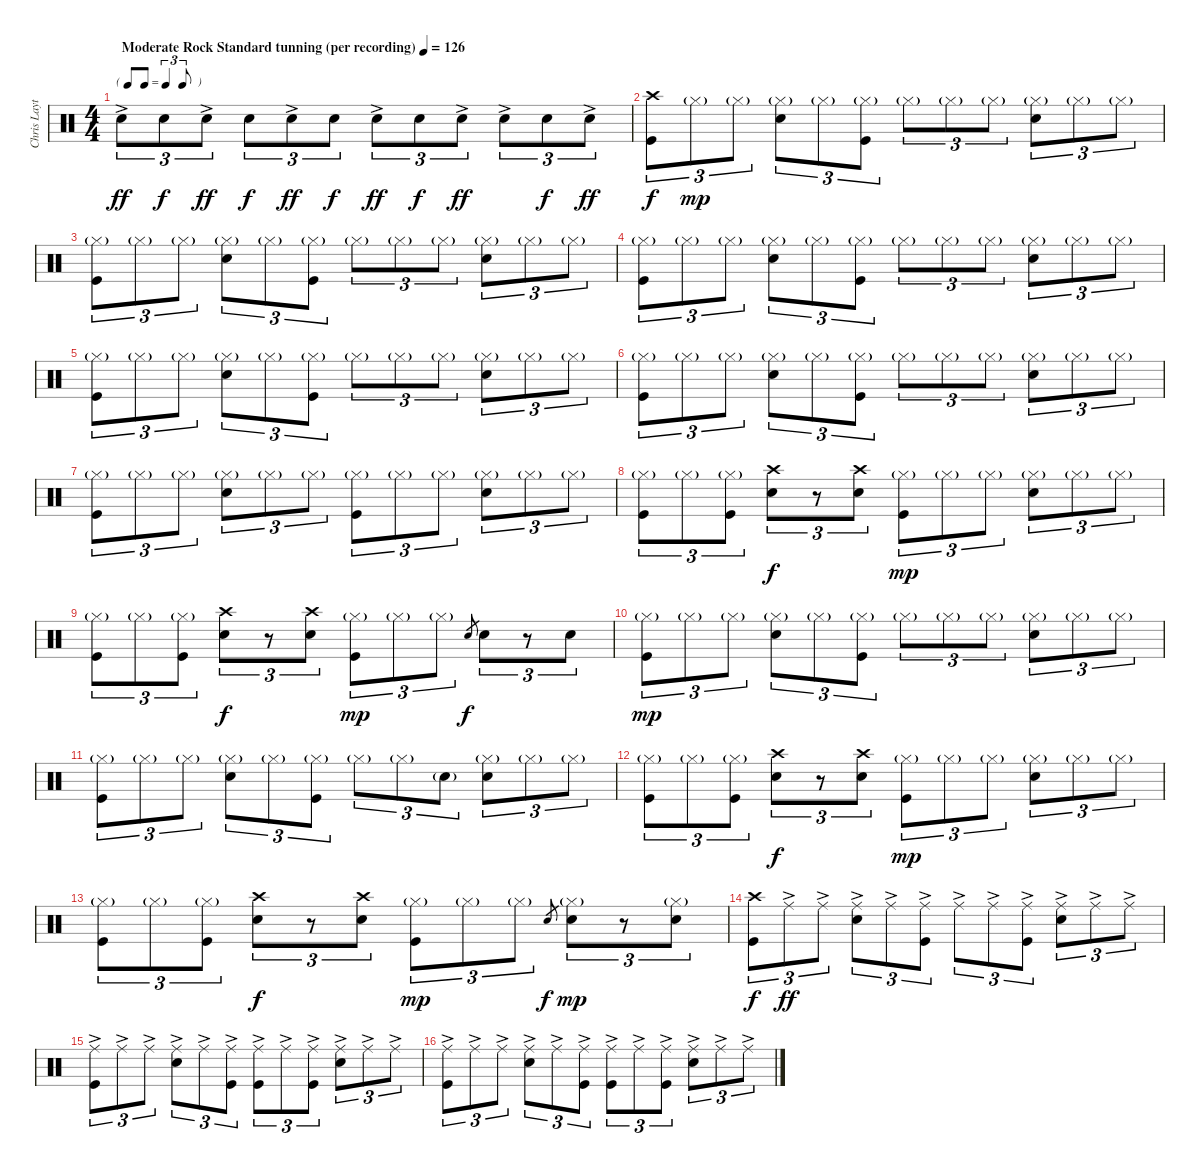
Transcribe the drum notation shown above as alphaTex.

\track ("Chris Layton" "Chris Layt") {instrument percussion}
\staff {score}
\articulation defaults
\ts (4 4)
\tf triplet8th
\tempo (126 "Moderate Rock Standard tunning (per recording)")
\clef neutral
\ks c "Electric Snare (hit)"{ac}.8{tu (3 2) dy ff} "Electric Snare (hit)".8{tu (3 2) dy f} "Electric Snare (hit)"{ac}.8{tu (3 2) dy ff} "Electric Snare (hit)".8{tu (3 2) dy f} "Electric Snare (hit)"{ac}.8{tu (3 2) dy ff} "Electric Snare (hit)".8{tu (3 2) dy f} "Electric Snare (hit)"{ac}.8{tu (3 2) dy ff} "Electric Snare (hit)".8{tu (3 2) dy f} "Electric Snare (hit)"{ac}.8{tu (3 2) dy ff} "Electric Snare (hit)"{ac}.8{tu (3 2)} "Electric Snare (hit)".8{tu (3 2) dy f} "Electric Snare (hit)"{ac}.8{tu (3 2) dy ff}
|
("Crash high (hit)" "Kick (hit)").8{tu (3 2) dy f} "Hi-Hat (closed)"{g}.8{tu (3 2) dy mp} "Hi-Hat (closed)"{g}.8{tu (3 2)} ("Hi-Hat (closed)"{g} "Electric Snare (hit)").8{tu (3 2)} "Hi-Hat (closed)"{g}.8{tu (3 2)} ("Hi-Hat (closed)"{g} "Kick (hit)").8{tu (3 2)} "Hi-Hat (closed)"{g}.8{tu (3 2)} "Hi-Hat (closed)"{g}.8{tu (3 2)} "Hi-Hat (closed)"{g}.8{tu (3 2)} ("Hi-Hat (closed)"{g} "Electric Snare (hit)").8{tu (3 2)} "Hi-Hat (closed)"{g}.8{tu (3 2)} "Hi-Hat (closed)"{g}.8{tu (3 2)} |
("Hi-Hat (closed)"{g} "Kick (hit)").8{tu (3 2)} "Hi-Hat (closed)"{g}.8{tu (3 2)} "Hi-Hat (closed)"{g}.8{tu (3 2)} ("Hi-Hat (closed)"{g} "Electric Snare (hit)").8{tu (3 2)} "Hi-Hat (closed)"{g}.8{tu (3 2)} ("Hi-Hat (closed)"{g} "Kick (hit)").8{tu (3 2)} "Hi-Hat (closed)"{g}.8{tu (3 2)} "Hi-Hat (closed)"{g}.8{tu (3 2)} "Hi-Hat (closed)"{g}.8{tu (3 2)} ("Hi-Hat (closed)"{g} "Electric Snare (hit)").8{tu (3 2)} "Hi-Hat (closed)"{g}.8{tu (3 2)} "Hi-Hat (closed)"{g}.8{tu (3 2)} |
("Hi-Hat (closed)"{g} "Kick (hit)").8{tu (3 2)} "Hi-Hat (closed)"{g}.8{tu (3 2)} "Hi-Hat (closed)"{g}.8{tu (3 2)} ("Hi-Hat (closed)"{g} "Electric Snare (hit)").8{tu (3 2)} "Hi-Hat (closed)"{g}.8{tu (3 2)} ("Hi-Hat (closed)"{g} "Kick (hit)").8{tu (3 2)} "Hi-Hat (closed)"{g}.8{tu (3 2)} "Hi-Hat (closed)"{g}.8{tu (3 2)} "Hi-Hat (closed)"{g}.8{tu (3 2)} ("Hi-Hat (closed)"{g} "Electric Snare (hit)").8{tu (3 2)} "Hi-Hat (closed)"{g}.8{tu (3 2)} "Hi-Hat (closed)"{g}.8{tu (3 2)} |
("Hi-Hat (closed)"{g} "Kick (hit)").8{tu (3 2)} "Hi-Hat (closed)"{g}.8{tu (3 2)} "Hi-Hat (closed)"{g}.8{tu (3 2)} ("Hi-Hat (closed)"{g} "Electric Snare (hit)").8{tu (3 2)} "Hi-Hat (closed)"{g}.8{tu (3 2)} ("Hi-Hat (closed)"{g} "Kick (hit)").8{tu (3 2)} "Hi-Hat (closed)"{g}.8{tu (3 2)} "Hi-Hat (closed)"{g}.8{tu (3 2)} "Hi-Hat (closed)"{g}.8{tu (3 2)} ("Hi-Hat (closed)"{g} "Electric Snare (hit)").8{tu (3 2)} "Hi-Hat (closed)"{g}.8{tu (3 2)} "Hi-Hat (closed)"{g}.8{tu (3 2)} |
("Hi-Hat (closed)"{g} "Kick (hit)").8{tu (3 2)} "Hi-Hat (closed)"{g}.8{tu (3 2)} "Hi-Hat (closed)"{g}.8{tu (3 2)} ("Hi-Hat (closed)"{g} "Electric Snare (hit)").8{tu (3 2)} "Hi-Hat (closed)"{g}.8{tu (3 2)} ("Hi-Hat (closed)"{g} "Kick (hit)").8{tu (3 2)} "Hi-Hat (closed)"{g}.8{tu (3 2)} "Hi-Hat (closed)"{g}.8{tu (3 2)} "Hi-Hat (closed)"{g}.8{tu (3 2)} ("Hi-Hat (closed)"{g} "Electric Snare (hit)").8{tu (3 2)} "Hi-Hat (closed)"{g}.8{tu (3 2)} "Hi-Hat (closed)"{g}.8{tu (3 2)} |
("Hi-Hat (closed)"{g} "Kick (hit)").8{tu (3 2)} "Hi-Hat (closed)"{g}.8{tu (3 2)} "Hi-Hat (closed)"{g}.8{tu (3 2)} ("Hi-Hat (closed)"{g} "Electric Snare (hit)").8{tu (3 2)} "Hi-Hat (closed)"{g}.8{tu (3 2)} "Hi-Hat (closed)"{g}.8{tu (3 2)} ("Hi-Hat (closed)"{g} "Kick (hit)").8{tu (3 2)} "Hi-Hat (closed)"{g}.8{tu (3 2)} "Hi-Hat (closed)"{g}.8{tu (3 2)} ("Hi-Hat (closed)"{g} "Electric Snare (hit)").8{tu (3 2)} "Hi-Hat (closed)"{g}.8{tu (3 2)} "Hi-Hat (closed)"{g}.8{tu (3 2)} |
("Hi-Hat (closed)"{g} "Kick (hit)").8{tu (3 2)} "Hi-Hat (closed)"{g}.8{tu (3 2)} ("Hi-Hat (closed)"{g} "Kick (hit)").8{tu (3 2)} ("Crash high (hit)" "Electric Snare (hit)").8{tu (3 2) dy f} r.8{tu (3 2)} ("Crash high (hit)" "Electric Snare (hit)").8{tu (3 2)} ("Hi-Hat (closed)"{g} "Kick (hit)").8{tu (3 2) dy mp} "Hi-Hat (closed)"{g}.8{tu (3 2)} "Hi-Hat (closed)"{g}.8{tu (3 2)} ("Hi-Hat (closed)"{g} "Electric Snare (hit)").8{tu (3 2)} "Hi-Hat (closed)"{g}.8{tu (3 2)} "Hi-Hat (closed)"{g}.8{tu (3 2)} |
("Hi-Hat (closed)"{g} "Kick (hit)").8{tu (3 2)} "Hi-Hat (closed)"{g}.8{tu (3 2)} ("Hi-Hat (closed)"{g} "Kick (hit)").8{tu (3 2)} ("Crash high (hit)" "Electric Snare (hit)").8{tu (3 2) dy f} r.8{tu (3 2)} ("Crash high (hit)" "Electric Snare (hit)").8{tu (3 2)} ("Hi-Hat (closed)"{g} "Kick (hit)").8{tu (3 2) dy mp} "Hi-Hat (closed)"{g}.8{tu (3 2)} "Hi-Hat (closed)"{g}.8{tu (3 2)} "Electric Snare (hit)".8{gr dy f} "Electric Snare (hit)".8{tu (3 2)} r.8{tu (3 2)} "Electric Snare (hit)".8{tu (3 2)} |
("Hi-Hat (closed)"{g} "Kick (hit)").8{tu (3 2) dy mp} "Hi-Hat (closed)"{g}.8{tu (3 2)} "Hi-Hat (closed)"{g}.8{tu (3 2)} ("Hi-Hat (closed)"{g} "Electric Snare (hit)").8{tu (3 2)} "Hi-Hat (closed)"{g}.8{tu (3 2)} ("Hi-Hat (closed)"{g} "Kick (hit)").8{tu (3 2)} "Hi-Hat (closed)"{g}.8{tu (3 2)} "Hi-Hat (closed)"{g}.8{tu (3 2)} "Hi-Hat (closed)"{g}.8{tu (3 2)} ("Hi-Hat (closed)"{g} "Electric Snare (hit)").8{tu (3 2)} "Hi-Hat (closed)"{g}.8{tu (3 2)} "Hi-Hat (closed)"{g}.8{tu (3 2)} |
("Hi-Hat (closed)"{g} "Kick (hit)").8{tu (3 2)} "Hi-Hat (closed)"{g}.8{tu (3 2)} "Hi-Hat (closed)"{g}.8{tu (3 2)} ("Hi-Hat (closed)"{g} "Electric Snare (hit)").8{tu (3 2)} "Hi-Hat (closed)"{g}.8{tu (3 2)} ("Hi-Hat (closed)"{g} "Kick (hit)").8{tu (3 2)} "Hi-Hat (closed)"{g}.8{tu (3 2)} "Hi-Hat (closed)"{g}.8{tu (3 2)} "Snare (hit)"{g}.8{tu (3 2)} ("Hi-Hat (closed)"{g} "Electric Snare (hit)").8{tu (3 2)} "Hi-Hat (closed)"{g}.8{tu (3 2)} "Hi-Hat (closed)"{g}.8{tu (3 2)} |
("Hi-Hat (closed)"{g} "Kick (hit)").8{tu (3 2)} "Hi-Hat (closed)"{g}.8{tu (3 2)} ("Hi-Hat (closed)"{g} "Kick (hit)").8{tu (3 2)} ("Crash high (hit)" "Electric Snare (hit)").8{tu (3 2) dy f} r.8{tu (3 2)} ("Crash high (hit)" "Electric Snare (hit)").8{tu (3 2)} ("Hi-Hat (closed)"{g} "Kick (hit)").8{tu (3 2) dy mp} "Hi-Hat (closed)"{g}.8{tu (3 2)} "Hi-Hat (closed)"{g}.8{tu (3 2)} ("Hi-Hat (closed)"{g} "Electric Snare (hit)").8{tu (3 2)} "Hi-Hat (closed)"{g}.8{tu (3 2)} "Hi-Hat (closed)"{g}.8{tu (3 2)} |
("Hi-Hat (closed)"{g} "Kick (hit)").8{tu (3 2)} "Hi-Hat (closed)"{g}.8{tu (3 2)} ("Hi-Hat (closed)"{g} "Kick (hit)").8{tu (3 2)} ("Crash high (hit)" "Electric Snare (hit)").8{tu (3 2) dy f} r.8{tu (3 2)} ("Crash high (hit)" "Electric Snare (hit)").8{tu (3 2)} ("Hi-Hat (closed)"{g} "Kick (hit)").8{tu (3 2) dy mp} "Hi-Hat (closed)"{g}.8{tu (3 2)} "Hi-Hat (closed)"{g}.8{tu (3 2)} "Electric Snare (hit)".8{gr dy f} ("Hi-Hat (closed)"{g} "Electric Snare (hit)").8{tu (3 2) dy mp} r.8{tu (3 2)} ("Hi-Hat (closed)"{g} "Electric Snare (hit)").8{tu (3 2)} |
("Crash high (hit)" "Kick (hit)").8{tu (3 2) dy f} "Ride (middle)"{ac}.8{tu (3 2) dy ff} "Ride (middle)"{ac}.8{tu (3 2)} ("Ride (middle)"{ac} "Electric Snare (hit)").8{tu (3 2)} "Ride (middle)"{ac}.8{tu (3 2)} ("Ride (middle)"{ac} "Kick (hit)").8{tu (3 2)} "Ride (middle)"{ac}.8{tu (3 2)} "Ride (middle)"{ac}.8{tu (3 2)} ("Ride (middle)"{ac} "Kick (hit)").8{tu (3 2)} ("Ride (middle)"{ac} "Electric Snare (hit)").8{tu (3 2)} "Ride (middle)"{ac}.8{tu (3 2)} "Ride (middle)"{ac}.8{tu (3 2)} |
("Ride (middle)"{ac} "Kick (hit)").8{tu (3 2)} "Ride (middle)"{ac}.8{tu (3 2)} "Ride (middle)"{ac}.8{tu (3 2)} ("Ride (middle)"{ac} "Electric Snare (hit)").8{tu (3 2)} "Ride (middle)"{ac}.8{tu (3 2)} ("Ride (middle)"{ac} "Kick (hit)").8{tu (3 2)} ("Ride (middle)"{ac} "Kick (hit)").8{tu (3 2)} "Ride (middle)"{ac}.8{tu (3 2)} ("Ride (middle)"{ac} "Kick (hit)").8{tu (3 2)} ("Ride (middle)"{ac} "Electric Snare (hit)").8{tu (3 2)} "Ride (middle)"{ac}.8{tu (3 2)} "Ride (middle)"{ac}.8{tu (3 2)} |
("Ride (middle)"{ac} "Kick (hit)").8{tu (3 2)} "Ride (middle)"{ac}.8{tu (3 2)} "Ride (middle)"{ac}.8{tu (3 2)} ("Ride (middle)"{ac} "Electric Snare (hit)").8{tu (3 2)} "Ride (middle)"{ac}.8{tu (3 2)} ("Ride (middle)"{ac} "Kick (hit)").8{tu (3 2)} ("Ride (middle)"{ac} "Kick (hit)").8{tu (3 2)} "Ride (middle)"{ac}.8{tu (3 2)} ("Ride (middle)"{ac} "Kick (hit)").8{tu (3 2)} ("Ride (middle)"{ac} "Electric Snare (hit)").8{tu (3 2)} "Ride (middle)"{ac}.8{tu (3 2)} "Ride (middle)"{ac}.8{tu (3 2)}
